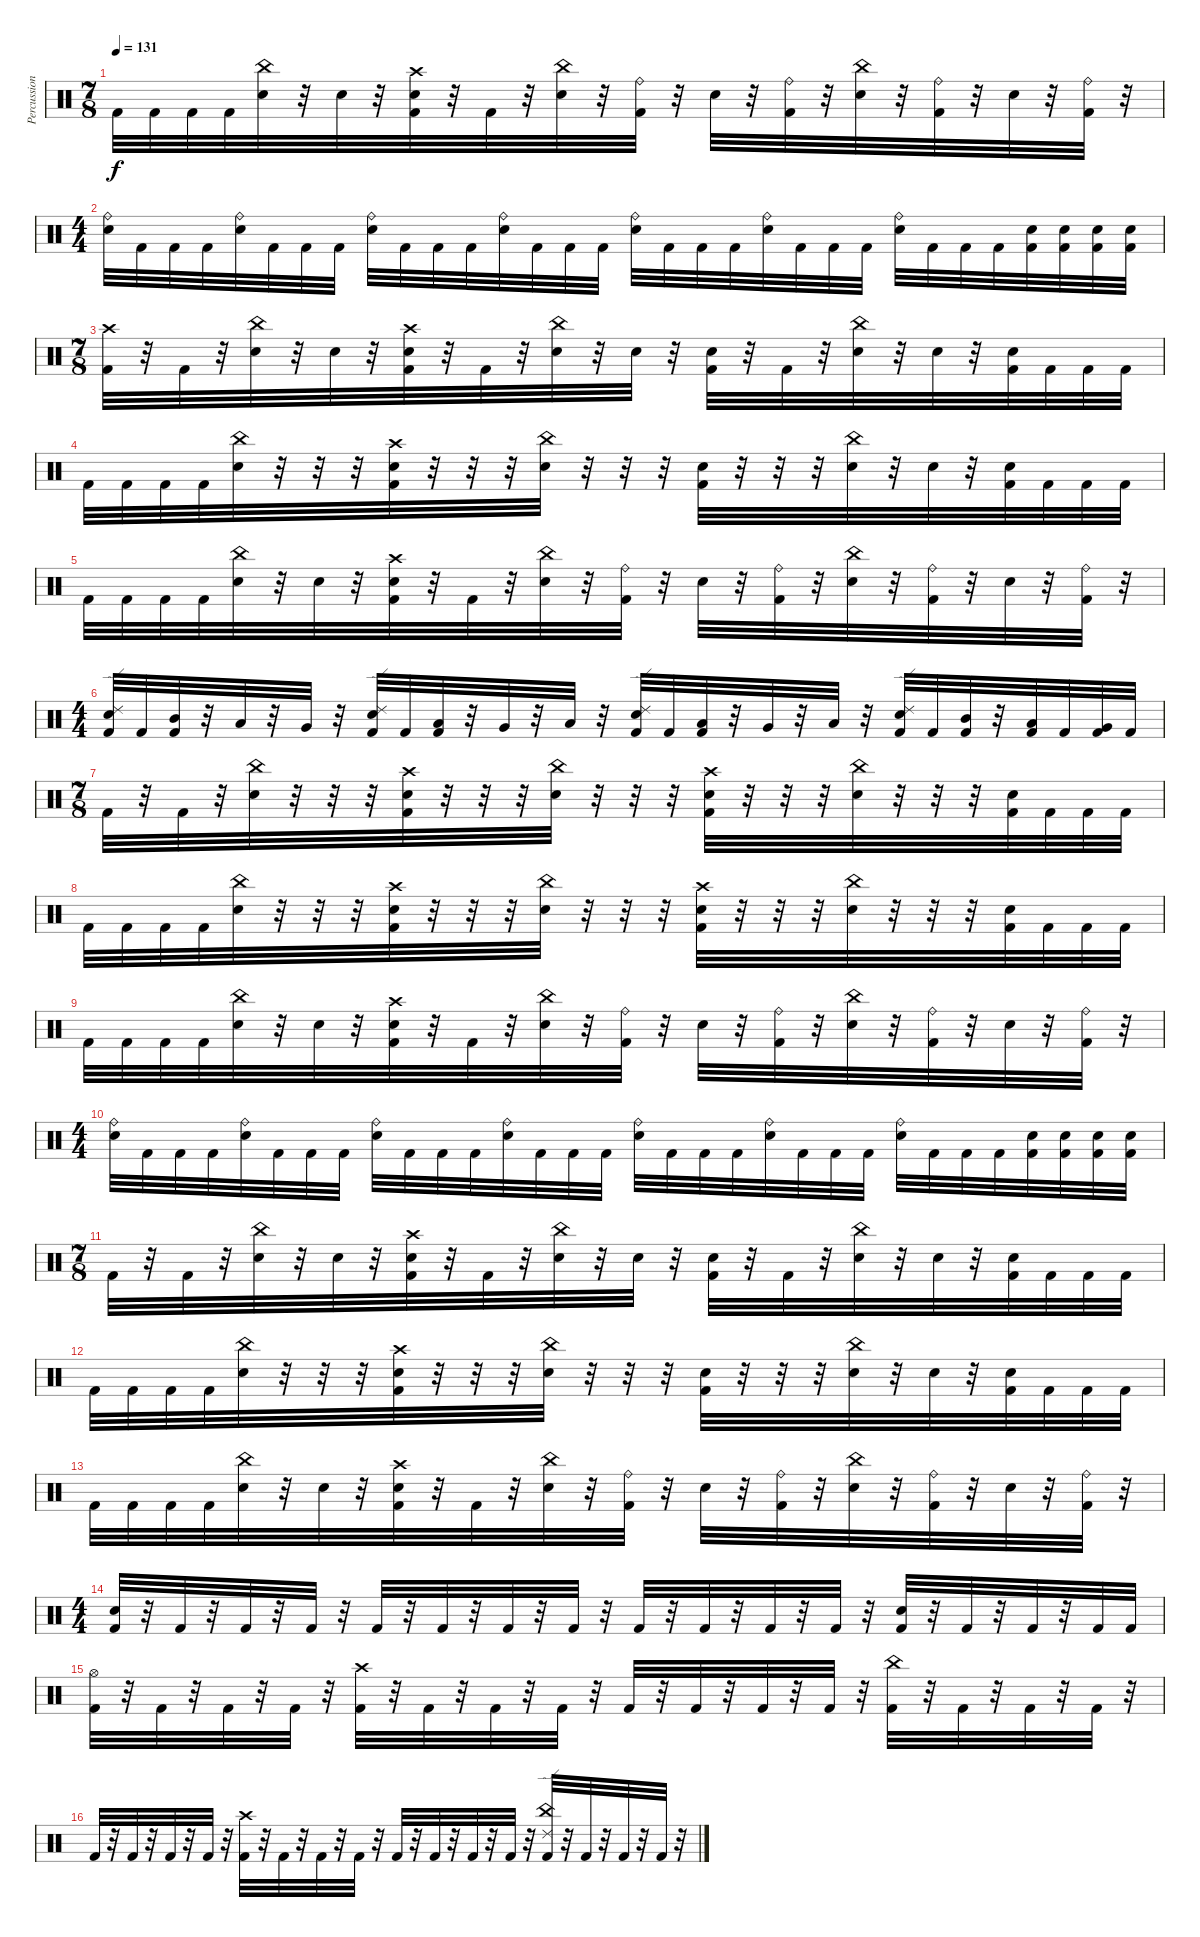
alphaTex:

\track ("Percussion" "Percussion") {instrument percussion}
\staff {score}
\articulation defaults
\ts (7 8)
\tempo 131
\clef neutral
\ks c "Kick (hit) 2".32{dy f} "Kick (hit) 2".32 "Kick (hit) 2".32 "Kick (hit) 2".32
("China (hit)" "Electric Snare (hit)").32 r.32 "Electric Snare (hit)".32 r.32 ("Crash high (hit)" "Electric Snare (hit)" "Kick (hit) 2").32 r.32 "Kick (hit) 2".32 r.32 ("China (hit)" "Electric Snare (hit)").32 r.32 ("Ride (bell)" "Kick (hit) 2").32 r.32 "Electric Snare (hit)".32 r.32 ("Ride (bell)" "Kick (hit) 2").32 r.32 ("China (hit)" "Electric Snare (hit)").32 r.32 ("Ride (bell)" "Kick (hit) 2").32 r.32 "Electric Snare (hit)".32 r.32 ("Ride (bell)" "Kick (hit) 2").32 r.32 |
\ts (4 4)
("Ride (bell)" "Electric Snare (hit)").32 "Kick (hit) 2".32 "Kick (hit) 2".32 "Kick (hit) 2".32 ("Ride (bell)" "Electric Snare (hit)").32 "Kick (hit) 2".32 "Kick (hit) 2".32 "Kick (hit) 2".32 ("Ride (bell)" "Electric Snare (hit)").32 "Kick (hit) 2".32 "Kick (hit) 2".32 "Kick (hit) 2".32 ("Ride (bell)" "Electric Snare (hit)").32 "Kick (hit) 2".32 "Kick (hit) 2".32 "Kick (hit) 2".32 ("Ride (bell)" "Electric Snare (hit)").32 "Kick (hit) 2".32 "Kick (hit) 2".32 "Kick (hit) 2".32 ("Ride (bell)" "Electric Snare (hit)").32 "Kick (hit) 2".32 "Kick (hit) 2".32 "Kick (hit) 2".32 ("Ride (bell)" "Electric Snare (hit)").32 "Kick (hit) 2".32 "Kick (hit) 2".32 "Kick (hit) 2".32 ("Electric Snare (hit)" "Kick (hit) 2").32 ("Electric Snare (hit)" "Kick (hit) 2").32 ("Electric Snare (hit)" "Kick (hit) 2").32 ("Electric Snare (hit)" "Kick (hit) 2").32 |
\ts (7 8)
("Crash high (hit)" "Kick (hit) 2").32 r.32 "Kick (hit) 2".32 r.32 ("China (hit)" "Electric Snare (hit)").32 r.32 "Electric Snare (hit)".32 r.32 ("Crash high (hit)" "Electric Snare (hit)" "Kick (hit) 2").32 r.32 "Kick (hit) 2".32 r.32 ("China (hit)" "Electric Snare (hit)").32 r.32 "Electric Snare (hit)".32 r.32 ("Electric Snare (hit)" "Kick (hit) 2").32 r.32 "Kick (hit) 2".32 r.32 ("China (hit)" "Electric Snare (hit)").32 r.32 "Electric Snare (hit)".32 r.32 ("Electric Snare (hit)" "Kick (hit) 2").32 "Kick (hit) 2".32 "Kick (hit) 2".32 "Kick (hit) 2".32 |
"Kick (hit) 2".32 "Kick (hit) 2".32 "Kick (hit) 2".32 "Kick (hit) 2".32 ("China (hit)" "Electric Snare (hit)").32 r.32 r.32 r.32 ("Crash high (hit)" "Electric Snare (hit)" "Kick (hit) 2").32 r.32 r.32 r.32 ("China (hit)" "Electric Snare (hit)").32 r.32 r.32 r.32 ("Electric Snare (hit)" "Kick (hit) 2").32 r.32 r.32 r.32 ("China (hit)" "Electric Snare (hit)").32 r.32 "Electric Snare (hit)".32 r.32 ("Electric Snare (hit)" "Kick (hit) 2").32 "Kick (hit) 2".32 "Kick (hit) 2".32 "Kick (hit) 2".32 |
"Kick (hit) 2".32 "Kick (hit) 2".32 "Kick (hit) 2".32 "Kick (hit) 2".32 ("China (hit)" "Electric Snare (hit)").32 r.32 "Electric Snare (hit)".32 r.32 ("Crash high (hit)" "Electric Snare (hit)" "Kick (hit) 2").32 r.32 "Kick (hit) 2".32 r.32 ("China (hit)" "Electric Snare (hit)").32 r.32 ("Ride (bell)" "Kick (hit) 2").32 r.32 "Electric Snare (hit)".32 r.32 ("Ride (bell)" "Kick (hit) 2").32 r.32 ("China (hit)" "Electric Snare (hit)").32 r.32 ("Ride (bell)" "Kick (hit) 2").32 r.32 "Electric Snare (hit)".32 r.32 ("Ride (bell)" "Kick (hit) 2").32 r.32 |
\ts (4 4)
("Ride (edge) 2" "Electric Snare (hit)" "Kick (hit) 2").32 "Kick (hit) 2".32 ("Mid Tom (hit)" "Kick (hit) 2").32 r.32 "Low Tom (hit)".32 r.32 "Very Low Tom (hit)".32 r.32 ("Ride (edge) 2" "Electric Snare (hit)" "Kick (hit) 2").32 "Kick (hit) 2".32 ("Low Tom (hit)" "Kick (hit) 2").32 r.32 "Very Low Tom (hit)".32 r.32 "Low Floor Tom (hit)".32 r.32 ("Ride (edge) 2" "Electric Snare (hit)" "Kick (hit) 2").32 "Kick (hit) 2".32 ("Low Tom (hit)" "Kick (hit) 2").32 r.32 "Very Low Tom (hit)".32 r.32 "Low Floor Tom (hit)".32 r.32 ("Ride (edge) 2" "Electric Snare (hit)" "Kick (hit) 2").32 "Kick (hit) 2".32 ("Mid Tom (hit)" "Kick (hit) 2").32 r.32 ("Low Tom (hit)" "Kick (hit) 2").32 "Kick (hit) 2".32 ("Very Low Tom (hit)" "Kick (hit) 2").32 "Kick (hit) 2".32 |
\ts (7 8)
"Kick (hit) 2".32 r.32 "Kick (hit) 2".32 r.32 ("China (hit)" "Electric Snare (hit)").32 r.32 r.32 r.32 ("Crash high (hit)" "Electric Snare (hit)" "Kick (hit) 2").32 r.32 r.32 r.32 ("China (hit)" "Electric Snare (hit)").32 r.32 r.32 r.32 ("Crash high (hit)" "Electric Snare (hit)" "Kick (hit) 2").32 r.32 r.32 r.32 ("China (hit)" "Electric Snare (hit)").32 r.32 r.32 r.32 ("Electric Snare (hit)" "Kick (hit) 2").32 "Kick (hit) 2".32 "Kick (hit) 2".32 "Kick (hit) 2".32 |
"Kick (hit) 2".32 "Kick (hit) 2".32 "Kick (hit) 2".32 "Kick (hit) 2".32 ("China (hit)" "Electric Snare (hit)").32 r.32 r.32 r.32 ("Crash high (hit)" "Electric Snare (hit)" "Kick (hit) 2").32 r.32 r.32 r.32 ("China (hit)" "Electric Snare (hit)").32 r.32 r.32 r.32 ("Crash high (hit)" "Electric Snare (hit)" "Kick (hit) 2").32 r.32 r.32 r.32 ("China (hit)" "Electric Snare (hit)").32 r.32 r.32 r.32 ("Electric Snare (hit)" "Kick (hit) 2").32 "Kick (hit) 2".32 "Kick (hit) 2".32 "Kick (hit) 2".32 |
"Kick (hit) 2".32 "Kick (hit) 2".32 "Kick (hit) 2".32 "Kick (hit) 2".32 ("China (hit)" "Electric Snare (hit)").32 r.32 "Electric Snare (hit)".32 r.32 ("Crash high (hit)" "Electric Snare (hit)" "Kick (hit) 2").32 r.32 "Kick (hit) 2".32 r.32 ("China (hit)" "Electric Snare (hit)").32 r.32 ("Ride (bell)" "Kick (hit) 2").32 r.32 "Electric Snare (hit)".32 r.32 ("Ride (bell)" "Kick (hit) 2").32 r.32 ("China (hit)" "Electric Snare (hit)").32 r.32 ("Ride (bell)" "Kick (hit) 2").32 r.32 "Electric Snare (hit)".32 r.32 ("Ride (bell)" "Kick (hit) 2").32 r.32 |
\ts (4 4)
("Ride (bell)" "Electric Snare (hit)").32 "Kick (hit) 2".32 "Kick (hit) 2".32 "Kick (hit) 2".32 ("Ride (bell)" "Electric Snare (hit)").32 "Kick (hit) 2".32 "Kick (hit) 2".32 "Kick (hit) 2".32 ("Ride (bell)" "Electric Snare (hit)").32 "Kick (hit) 2".32 "Kick (hit) 2".32 "Kick (hit) 2".32 ("Ride (bell)" "Electric Snare (hit)").32 "Kick (hit) 2".32 "Kick (hit) 2".32 "Kick (hit) 2".32 ("Ride (bell)" "Electric Snare (hit)").32 "Kick (hit) 2".32 "Kick (hit) 2".32 "Kick (hit) 2".32 ("Ride (bell)" "Electric Snare (hit)").32 "Kick (hit) 2".32 "Kick (hit) 2".32 "Kick (hit) 2".32 ("Ride (bell)" "Electric Snare (hit)").32 "Kick (hit) 2".32 "Kick (hit) 2".32 "Kick (hit) 2".32 ("Electric Snare (hit)" "Kick (hit) 2").32 ("Electric Snare (hit)" "Kick (hit) 2").32 ("Electric Snare (hit)" "Kick (hit) 2").32 ("Electric Snare (hit)" "Kick (hit) 2").32 |
\ts (7 8)
"Kick (hit) 2".32 r.32 "Kick (hit) 2".32 r.32 ("China (hit)" "Electric Snare (hit)").32 r.32 "Electric Snare (hit)".32 r.32 ("Crash high (hit)" "Electric Snare (hit)" "Kick (hit) 2").32 r.32 "Kick (hit) 2".32 r.32 ("China (hit)" "Electric Snare (hit)").32 r.32 "Electric Snare (hit)".32 r.32 ("Electric Snare (hit)" "Kick (hit) 2").32 r.32 "Kick (hit) 2".32 r.32 ("China (hit)" "Electric Snare (hit)").32 r.32 "Electric Snare (hit)".32 r.32 ("Electric Snare (hit)" "Kick (hit) 2").32 "Kick (hit) 2".32 "Kick (hit) 2".32 "Kick (hit) 2".32 |
"Kick (hit) 2".32 "Kick (hit) 2".32 "Kick (hit) 2".32 "Kick (hit) 2".32 ("China (hit)" "Electric Snare (hit)").32 r.32 r.32 r.32 ("Crash high (hit)" "Electric Snare (hit)" "Kick (hit) 2").32 r.32 r.32 r.32 ("China (hit)" "Electric Snare (hit)").32 r.32 r.32 r.32 ("Electric Snare (hit)" "Kick (hit) 2").32 r.32 r.32 r.32 ("China (hit)" "Electric Snare (hit)").32 r.32 "Electric Snare (hit)".32 r.32 ("Electric Snare (hit)" "Kick (hit) 2").32 "Kick (hit) 2".32 "Kick (hit) 2".32 "Kick (hit) 2".32 |
"Kick (hit) 2".32 "Kick (hit) 2".32 "Kick (hit) 2".32 "Kick (hit) 2".32 ("China (hit)" "Electric Snare (hit)").32 r.32 "Electric Snare (hit)".32 r.32 ("Crash high (hit)" "Electric Snare (hit)" "Kick (hit) 2").32 r.32 "Kick (hit) 2".32 r.32 ("China (hit)" "Electric Snare (hit)").32 r.32 ("Ride (bell)" "Kick (hit) 2").32 r.32 "Electric Snare (hit)".32 r.32 ("Ride (bell)" "Kick (hit) 2").32 r.32 ("China (hit)" "Electric Snare (hit)").32 r.32 ("Ride (bell)" "Kick (hit) 2").32 r.32 "Electric Snare (hit)".32 r.32 ("Ride (bell)" "Kick (hit) 2").32 r.32 |
\ts (4 4)
("Electric Snare (hit)" "Kick (hit) 2").32 r.32 "Kick (hit) 2".32 r.32 "Kick (hit) 2".32 r.32 "Kick (hit) 2".32 r.32 "Kick (hit) 2".32 r.32 "Kick (hit) 2".32 r.32 "Kick (hit) 2".32 r.32 "Kick (hit) 2".32 r.32 "Kick (hit) 2".32 r.32 "Kick (hit) 2".32 r.32 "Kick (hit) 2".32 r.32 "Kick (hit) 2".32 r.32 ("Electric Snare (hit)" "Kick (hit) 2").32 r.32 "Kick (hit) 2".32 r.32 "Kick (hit) 2".32 r.32 "Kick (hit) 2".32 "Kick (hit) 2".32 |
("Hi-Hat (open)" "Kick (hit) 2").32 r.32 "Kick (hit) 2".32 r.32 "Kick (hit) 2".32 r.32 "Kick (hit) 2".32 r.32 ("Crash high (hit)" "Kick (hit) 2").32 r.32 "Kick (hit) 2".32 r.32 "Kick (hit) 2".32 r.32 "Kick (hit) 2".32 r.32 "Kick (hit) 2".32 r.32 "Kick (hit) 2".32 r.32 "Kick (hit) 2".32 r.32 "Kick (hit) 2".32 r.32 ("China (hit)" "Kick (hit) 2").32 r.32 "Kick (hit) 2".32 r.32 "Kick (hit) 2".32 r.32 "Kick (hit) 2".32 r.32 |
"Kick (hit) 2".32 r.32 "Kick (hit) 2".32 r.32 "Kick (hit) 2".32 r.32 "Kick (hit) 2".32 r.32 ("Crash high (hit)" "Kick (hit) 2").32 r.32 "Kick (hit) 2".32 r.32 "Kick (hit) 2".32 r.32 "Kick (hit) 2".32 r.32 "Kick (hit) 2".32 r.32 "Kick (hit) 2".32 r.32 "Kick (hit) 2".32 r.32 "Kick (hit) 2".32 r.32 ("China (hit)" "Ride (edge) 2" "Kick (hit) 2").32 r.32 "Kick (hit) 2".32 r.32 "Kick (hit) 2".32 r.32 "Kick (hit) 2".32 r.32
